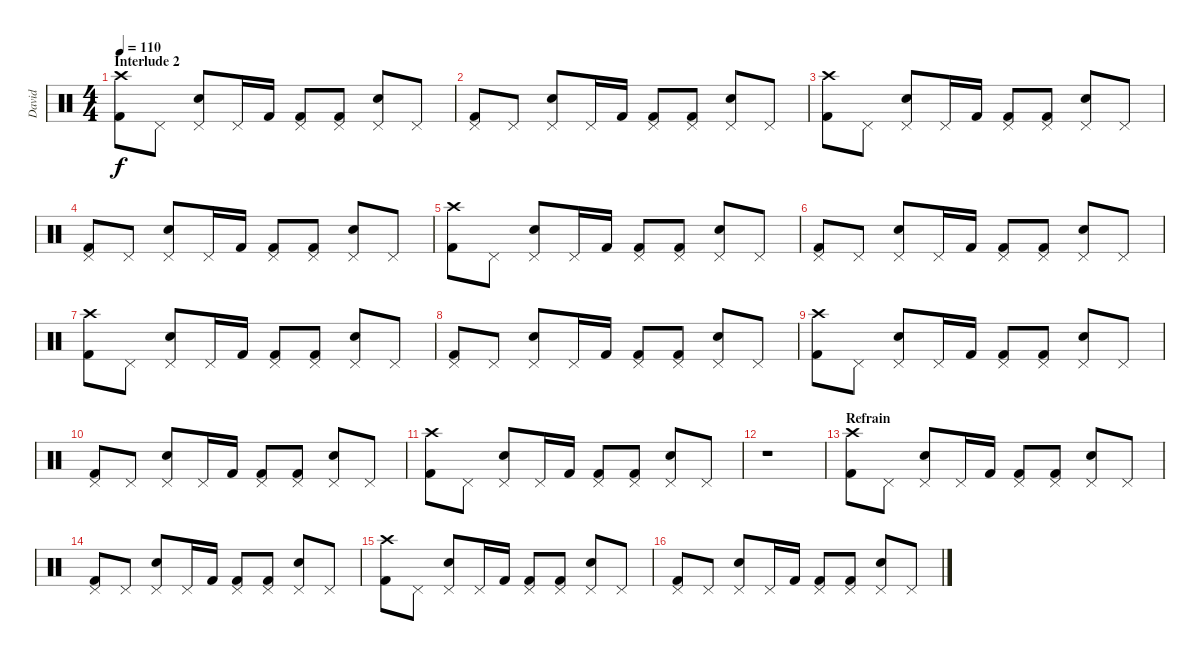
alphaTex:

\track ("David" "David") {instrument percussion}
\staff {score}
\articulation defaults
\ts (4 4)
\section ("" "Interlude 2")
\tempo 110
\clef neutral
\ks c
("Crash high (hit)" "Kick (hit) 2").8{dy f} "Pedal Hi-Hat (hit)".8 ("Pedal Hi-Hat (hit)" "Electric Snare (hit)").8 "Pedal Hi-Hat (hit)".16 "Kick (hit) 2".16 ("Pedal Hi-Hat (hit)" "Kick (hit) 2").8 ("Pedal Hi-Hat (hit)" "Kick (hit) 2").8 ("Pedal Hi-Hat (hit)" "Electric Snare (hit)").8 "Pedal Hi-Hat (hit)".8 |
("Pedal Hi-Hat (hit)" "Kick (hit) 2").8 "Pedal Hi-Hat (hit)".8 ("Pedal Hi-Hat (hit)" "Electric Snare (hit)").8 "Pedal Hi-Hat (hit)".16 "Kick (hit) 2".16 ("Pedal Hi-Hat (hit)" "Kick (hit) 2").8 ("Pedal Hi-Hat (hit)" "Kick (hit) 2").8 ("Pedal Hi-Hat (hit)" "Electric Snare (hit)").8 "Pedal Hi-Hat (hit)".8 |
("Crash high (hit)" "Kick (hit) 2").8 "Pedal Hi-Hat (hit)".8 ("Pedal Hi-Hat (hit)" "Electric Snare (hit)").8 "Pedal Hi-Hat (hit)".16 "Kick (hit) 2".16 ("Pedal Hi-Hat (hit)" "Kick (hit) 2").8 ("Pedal Hi-Hat (hit)" "Kick (hit) 2").8 ("Pedal Hi-Hat (hit)" "Electric Snare (hit)").8 "Pedal Hi-Hat (hit)".8 |
("Pedal Hi-Hat (hit)" "Kick (hit) 2").8 "Pedal Hi-Hat (hit)".8 ("Pedal Hi-Hat (hit)" "Electric Snare (hit)").8 "Pedal Hi-Hat (hit)".16 "Kick (hit) 2".16 ("Pedal Hi-Hat (hit)" "Kick (hit) 2").8 ("Pedal Hi-Hat (hit)" "Kick (hit) 2").8 ("Pedal Hi-Hat (hit)" "Electric Snare (hit)").8 "Pedal Hi-Hat (hit)".8 |
("Crash high (hit)" "Kick (hit) 2").8 "Pedal Hi-Hat (hit)".8 ("Pedal Hi-Hat (hit)" "Electric Snare (hit)").8 "Pedal Hi-Hat (hit)".16 "Kick (hit) 2".16 ("Pedal Hi-Hat (hit)" "Kick (hit) 2").8 ("Pedal Hi-Hat (hit)" "Kick (hit) 2").8 ("Pedal Hi-Hat (hit)" "Electric Snare (hit)").8 "Pedal Hi-Hat (hit)".8 |
("Pedal Hi-Hat (hit)" "Kick (hit) 2").8 "Pedal Hi-Hat (hit)".8 ("Pedal Hi-Hat (hit)" "Electric Snare (hit)").8 "Pedal Hi-Hat (hit)".16 "Kick (hit) 2".16 ("Pedal Hi-Hat (hit)" "Kick (hit) 2").8 ("Pedal Hi-Hat (hit)" "Kick (hit) 2").8 ("Pedal Hi-Hat (hit)" "Electric Snare (hit)").8 "Pedal Hi-Hat (hit)".8 |
("Crash high (hit)" "Kick (hit) 2").8 "Pedal Hi-Hat (hit)".8 ("Pedal Hi-Hat (hit)" "Electric Snare (hit)").8 "Pedal Hi-Hat (hit)".16 "Kick (hit) 2".16 ("Pedal Hi-Hat (hit)" "Kick (hit) 2").8 ("Pedal Hi-Hat (hit)" "Kick (hit) 2").8 ("Pedal Hi-Hat (hit)" "Electric Snare (hit)").8 "Pedal Hi-Hat (hit)".8 |
("Pedal Hi-Hat (hit)" "Kick (hit) 2").8 "Pedal Hi-Hat (hit)".8 ("Pedal Hi-Hat (hit)" "Electric Snare (hit)").8 "Pedal Hi-Hat (hit)".16 "Kick (hit) 2".16 ("Pedal Hi-Hat (hit)" "Kick (hit) 2").8 ("Pedal Hi-Hat (hit)" "Kick (hit) 2").8 ("Pedal Hi-Hat (hit)" "Electric Snare (hit)").8 "Pedal Hi-Hat (hit)".8 |
("Crash high (hit)" "Kick (hit) 2").8 "Pedal Hi-Hat (hit)".8 ("Pedal Hi-Hat (hit)" "Electric Snare (hit)").8 "Pedal Hi-Hat (hit)".16 "Kick (hit) 2".16 ("Pedal Hi-Hat (hit)" "Kick (hit) 2").8 ("Pedal Hi-Hat (hit)" "Kick (hit) 2").8 ("Pedal Hi-Hat (hit)" "Electric Snare (hit)").8 "Pedal Hi-Hat (hit)".8 |
("Pedal Hi-Hat (hit)" "Kick (hit) 2").8 "Pedal Hi-Hat (hit)".8 ("Pedal Hi-Hat (hit)" "Electric Snare (hit)").8 "Pedal Hi-Hat (hit)".16 "Kick (hit) 2".16 ("Pedal Hi-Hat (hit)" "Kick (hit) 2").8 ("Pedal Hi-Hat (hit)" "Kick (hit) 2").8 ("Pedal Hi-Hat (hit)" "Electric Snare (hit)").8 "Pedal Hi-Hat (hit)".8 |
("Crash high (hit)" "Kick (hit) 2").8 "Pedal Hi-Hat (hit)".8 ("Pedal Hi-Hat (hit)" "Electric Snare (hit)").8 "Pedal Hi-Hat (hit)".16 "Kick (hit) 2".16 ("Pedal Hi-Hat (hit)" "Kick (hit) 2").8 ("Pedal Hi-Hat (hit)" "Kick (hit) 2").8 ("Pedal Hi-Hat (hit)" "Electric Snare (hit)").8 "Pedal Hi-Hat (hit)".8 |
r.1 |
\section ("" "Refrain")
("Crash high (hit)" "Kick (hit) 2").8 "Pedal Hi-Hat (hit)".8 ("Pedal Hi-Hat (hit)" "Electric Snare (hit)").8 "Pedal Hi-Hat (hit)".16 "Kick (hit) 2".16 ("Pedal Hi-Hat (hit)" "Kick (hit) 2").8 ("Pedal Hi-Hat (hit)" "Kick (hit) 2").8 ("Pedal Hi-Hat (hit)" "Electric Snare (hit)").8 "Pedal Hi-Hat (hit)".8 |
("Pedal Hi-Hat (hit)" "Kick (hit) 2").8 "Pedal Hi-Hat (hit)".8 ("Pedal Hi-Hat (hit)" "Electric Snare (hit)").8 "Pedal Hi-Hat (hit)".16 "Kick (hit) 2".16 ("Pedal Hi-Hat (hit)" "Kick (hit) 2").8 ("Pedal Hi-Hat (hit)" "Kick (hit) 2").8 ("Pedal Hi-Hat (hit)" "Electric Snare (hit)").8 "Pedal Hi-Hat (hit)".8 |
("Crash high (hit)" "Kick (hit) 2").8 "Pedal Hi-Hat (hit)".8 ("Pedal Hi-Hat (hit)" "Electric Snare (hit)").8 "Pedal Hi-Hat (hit)".16 "Kick (hit) 2".16 ("Pedal Hi-Hat (hit)" "Kick (hit) 2").8 ("Pedal Hi-Hat (hit)" "Kick (hit) 2").8 ("Pedal Hi-Hat (hit)" "Electric Snare (hit)").8 "Pedal Hi-Hat (hit)".8 |
("Pedal Hi-Hat (hit)" "Kick (hit) 2").8 "Pedal Hi-Hat (hit)".8 ("Pedal Hi-Hat (hit)" "Electric Snare (hit)").8 "Pedal Hi-Hat (hit)".16 "Kick (hit) 2".16 ("Pedal Hi-Hat (hit)" "Kick (hit) 2").8 ("Pedal Hi-Hat (hit)" "Kick (hit) 2").8 ("Pedal Hi-Hat (hit)" "Electric Snare (hit)").8 "Pedal Hi-Hat (hit)".8
